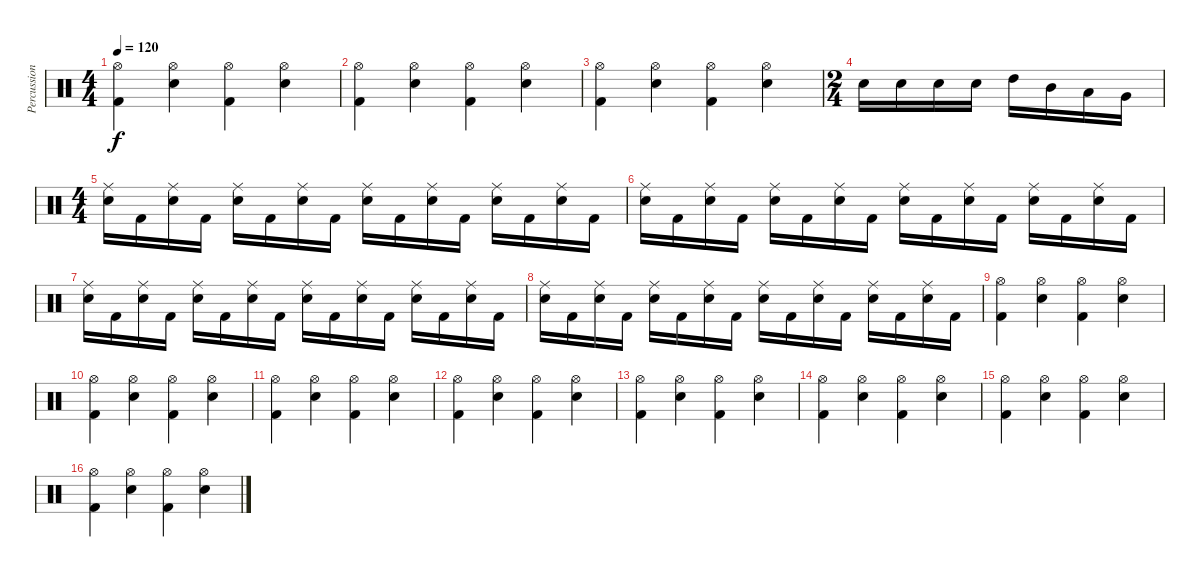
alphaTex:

\track ("Percussion" "Percussion") {instrument percussion}
\staff {score}
\articulation defaults
\ts (4 4)
\tempo 120
\clef neutral
\ks c
("Hi-Hat (open)" "Kick (hit) 2").4{dy f} ("Hi-Hat (open)" "Electric Snare (hit)").4 ("Hi-Hat (open)" "Kick (hit) 2").4 ("Hi-Hat (open)" "Electric Snare (hit)").4 |
("Hi-Hat (open)" "Kick (hit) 2").4 ("Hi-Hat (open)" "Electric Snare (hit)").4 ("Hi-Hat (open)" "Kick (hit) 2").4 ("Hi-Hat (open)" "Electric Snare (hit)").4 |
("Hi-Hat (open)" "Kick (hit) 2").4 ("Hi-Hat (open)" "Electric Snare (hit)").4 ("Hi-Hat (open)" "Kick (hit) 2").4 ("Hi-Hat (open)" "Electric Snare (hit)").4 |
\ts (2 4)
"Electric Snare (hit)".16 "Electric Snare (hit)".16 "Electric Snare (hit)".16 "Electric Snare (hit)".16 "High Tom (hit)".16 "Mid Tom (hit)".16 "Low Tom (hit)".16 "Very Low Tom (hit)".16 |
\ts (4 4)
("Electric Snare (hit)" "Ride (middle)").16 "Kick (hit) 2".16 ("Electric Snare (hit)" "Ride (middle)").16 "Kick (hit) 2".16 ("Electric Snare (hit)" "Ride (middle)").16 "Kick (hit) 2".16 ("Electric Snare (hit)" "Ride (middle)").16 "Kick (hit) 2".16 ("Electric Snare (hit)" "Ride (middle)").16 "Kick (hit) 2".16 ("Electric Snare (hit)" "Ride (middle)").16 "Kick (hit) 2".16 ("Electric Snare (hit)" "Ride (middle)").16 "Kick (hit) 2".16 ("Electric Snare (hit)" "Ride (middle)").16 "Kick (hit) 2".16 |
("Electric Snare (hit)" "Ride (middle)").16 "Kick (hit) 2".16 ("Electric Snare (hit)" "Ride (middle)").16 "Kick (hit) 2".16 ("Electric Snare (hit)" "Ride (middle)").16 "Kick (hit) 2".16 ("Electric Snare (hit)" "Ride (middle)").16 "Kick (hit) 2".16 ("Electric Snare (hit)" "Ride (middle)").16 "Kick (hit) 2".16 ("Electric Snare (hit)" "Ride (middle)").16 "Kick (hit) 2".16 ("Electric Snare (hit)" "Ride (middle)").16 "Kick (hit) 2".16 ("Electric Snare (hit)" "Ride (middle)").16 "Kick (hit) 2".16 |
("Electric Snare (hit)" "Ride (middle)").16 "Kick (hit) 2".16 ("Electric Snare (hit)" "Ride (middle)").16 "Kick (hit) 2".16 ("Electric Snare (hit)" "Ride (middle)").16 "Kick (hit) 2".16 ("Electric Snare (hit)" "Ride (middle)").16 "Kick (hit) 2".16 ("Electric Snare (hit)" "Ride (middle)").16 "Kick (hit) 2".16 ("Electric Snare (hit)" "Ride (middle)").16 "Kick (hit) 2".16 ("Electric Snare (hit)" "Ride (middle)").16 "Kick (hit) 2".16 ("Electric Snare (hit)" "Ride (middle)").16 "Kick (hit) 2".16 |
("Electric Snare (hit)" "Ride (middle)").16 "Kick (hit) 2".16 ("Electric Snare (hit)" "Ride (middle)").16 "Kick (hit) 2".16 ("Electric Snare (hit)" "Ride (middle)").16 "Kick (hit) 2".16 ("Electric Snare (hit)" "Ride (middle)").16 "Kick (hit) 2".16 ("Electric Snare (hit)" "Ride (middle)").16 "Kick (hit) 2".16 ("Electric Snare (hit)" "Ride (middle)").16 "Kick (hit) 2".16 ("Electric Snare (hit)" "Ride (middle)").16 "Kick (hit) 2".16 ("Electric Snare (hit)" "Ride (middle)").16 "Kick (hit) 2".16 |
("Hi-Hat (open)" "Kick (hit) 2").4 ("Hi-Hat (open)" "Electric Snare (hit)").4 ("Hi-Hat (open)" "Kick (hit) 2").4 ("Hi-Hat (open)" "Electric Snare (hit)").4 |
("Hi-Hat (open)" "Kick (hit) 2").4 ("Hi-Hat (open)" "Electric Snare (hit)").4 ("Hi-Hat (open)" "Kick (hit) 2").4 ("Hi-Hat (open)" "Electric Snare (hit)").4 |
("Hi-Hat (open)" "Kick (hit) 2").4 ("Hi-Hat (open)" "Electric Snare (hit)").4 ("Hi-Hat (open)" "Kick (hit) 2").4 ("Hi-Hat (open)" "Electric Snare (hit)").4 |
("Hi-Hat (open)" "Kick (hit) 2").4 ("Hi-Hat (open)" "Electric Snare (hit)").4 ("Hi-Hat (open)" "Kick (hit) 2").4 ("Hi-Hat (open)" "Electric Snare (hit)").4 |
("Hi-Hat (open)" "Kick (hit) 2").4 ("Hi-Hat (open)" "Electric Snare (hit)").4 ("Hi-Hat (open)" "Kick (hit) 2").4 ("Hi-Hat (open)" "Electric Snare (hit)").4 |
("Hi-Hat (open)" "Kick (hit) 2").4 ("Hi-Hat (open)" "Electric Snare (hit)").4 ("Hi-Hat (open)" "Kick (hit) 2").4 ("Hi-Hat (open)" "Electric Snare (hit)").4 |
("Hi-Hat (open)" "Kick (hit) 2").4 ("Hi-Hat (open)" "Electric Snare (hit)").4 ("Hi-Hat (open)" "Kick (hit) 2").4 ("Hi-Hat (open)" "Electric Snare (hit)").4 |
("Hi-Hat (open)" "Kick (hit) 2").4 ("Hi-Hat (open)" "Electric Snare (hit)").4 ("Hi-Hat (open)" "Kick (hit) 2").4 ("Hi-Hat (open)" "Electric Snare (hit)").4
